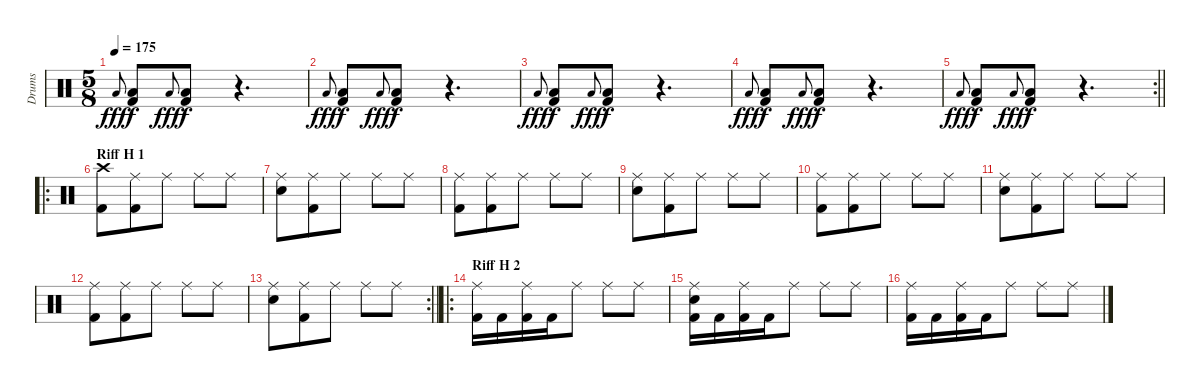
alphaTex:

\track ("Drums" "Drums") {instrument percussion}
\staff {score}
\articulation defaults
\ts (5 8)
\tempo 175
\clef neutral
\ks c "Low Floor Tom (hit)".8{gr onbeat dy fff}
("Low Floor Tom (hit)" "Kick (hit) 2").8{dy f} "Low Floor Tom (hit)".8{gr onbeat dy fff} ("Kick (hit) 2" "Low Floor Tom (hit)").8{dy f} r.4{d} |
"Low Floor Tom (hit)".8{gr onbeat dy fff} ("Low Floor Tom (hit)" "Kick (hit) 2").8{dy f} "Low Floor Tom (hit)".8{gr onbeat dy fff} ("Kick (hit) 2" "Low Floor Tom (hit)").8{dy f} r.4{d} |
"Low Floor Tom (hit)".8{gr onbeat dy fff} ("Low Floor Tom (hit)" "Kick (hit) 2").8{dy f} "Low Floor Tom (hit)".8{gr onbeat dy fff} ("Kick (hit) 2" "Low Floor Tom (hit)").8{dy f} r.4{d} |
"Low Floor Tom (hit)".8{gr onbeat dy fff} ("Low Floor Tom (hit)" "Kick (hit) 2").8{dy f} "Low Floor Tom (hit)".8{gr onbeat dy fff} ("Kick (hit) 2" "Low Floor Tom (hit)").8{dy f} r.4{d} |
\rc 2
\barLineRight lightlight "Low Floor Tom (hit)".8{gr onbeat dy fff}
("Low Floor Tom (hit)" "Kick (hit) 2").8{dy f} "Low Floor Tom (hit)".8{gr onbeat dy fff} ("Kick (hit) 2" "Low Floor Tom (hit)").8{dy f} r.4{d} |
\ro
\section ("" "Riff H 1")
("Crash high (hit)" "Kick (hit) 2").8 ("Ride (middle)" "Kick (hit) 2").8 "Ride (middle)".8 "Ride (middle)".8 "Ride (middle)".8 |
("Ride (middle)" "Snare (hit) 2").8 ("Ride (middle)" "Kick (hit) 2").8 "Ride (middle)".8 "Ride (middle)".8 "Ride (middle)".8 |
("Ride (middle)" "Kick (hit) 2").8 ("Ride (middle)" "Kick (hit) 2").8 "Ride (middle)".8 "Ride (middle)".8 "Ride (middle)".8 |
("Ride (middle)" "Snare (hit) 2").8 ("Ride (middle)" "Kick (hit) 2").8 "Ride (middle)".8 "Ride (middle)".8 "Ride (middle)".8 |
("Ride (middle)" "Kick (hit) 2").8 ("Ride (middle)" "Kick (hit) 2").8 "Ride (middle)".8 "Ride (middle)".8 "Ride (middle)".8 |
("Ride (middle)" "Snare (hit) 2").8 ("Ride (middle)" "Kick (hit) 2").8 "Ride (middle)".8 "Ride (middle)".8 "Ride (middle)".8 |
("Ride (middle)" "Kick (hit) 2").8 ("Ride (middle)" "Kick (hit) 2").8 "Ride (middle)".8 "Ride (middle)".8 "Ride (middle)".8 |
\rc 2
\barLineRight lightlight
("Ride (middle)" "Snare (hit) 2").8 ("Ride (middle)" "Kick (hit) 2").8 "Ride (middle)".8 "Ride (middle)".8 "Ride (middle)".8 |
\ro
\section ("" "Riff H 2")
("Ride (middle)" "Kick (hit) 2").16 "Kick (hit) 2".16 ("Kick (hit) 2" "Ride (middle)").16 "Kick (hit) 2".16 "Ride (middle)".8 "Ride (middle)".8 "Ride (middle)".8 |
("Ride (middle)" "Kick (hit) 2" "Snare (hit) 2").16 "Kick (hit) 2".16 ("Kick (hit) 2" "Ride (middle)").16 "Kick (hit) 2".16 "Ride (middle)".8 "Ride (middle)".8 "Ride (middle)".8 |
("Ride (middle)" "Kick (hit) 2").16 "Kick (hit) 2".16 ("Kick (hit) 2" "Ride (middle)").16 "Kick (hit) 2".16 "Ride (middle)".8 "Ride (middle)".8 "Ride (middle)".8
